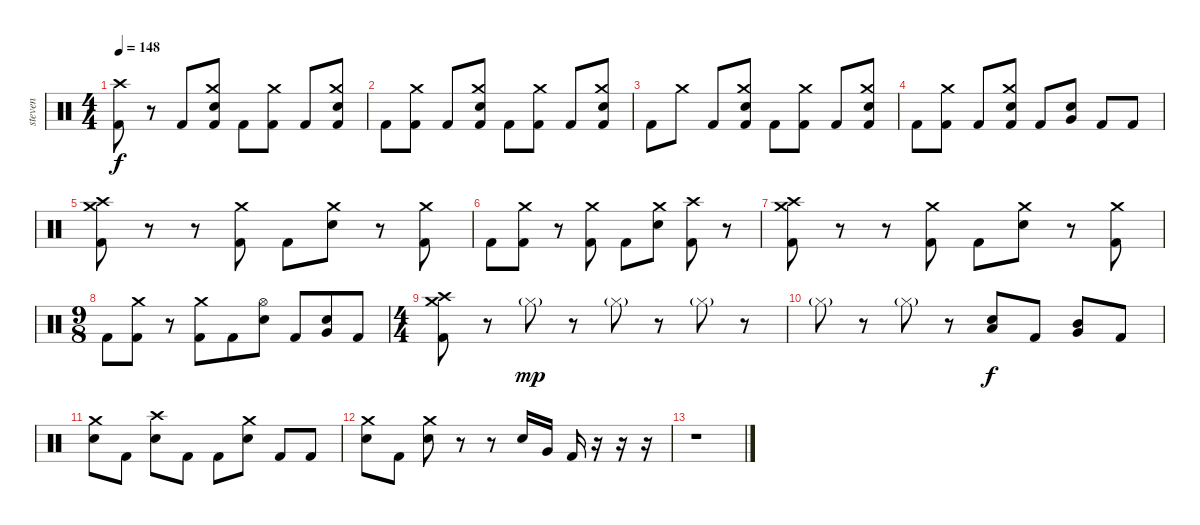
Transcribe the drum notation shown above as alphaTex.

\track ("steven" "steven") {instrument percussion}
\staff {score}
\articulation defaults
\ts (4 4)
\tempo 148
\clef neutral
\ks c
("Crash high (hit)" "Kick (hit) 2").8{dy f} r.8 "Kick (hit) 2".8 ("Crash medium (hit)" "Electric Snare (hit)" "Kick (hit) 2").8 "Kick (hit) 2".8 ("Crash medium (hit)" "Kick (hit) 2").8 "Kick (hit) 2".8 ("Crash medium (hit)" "Electric Snare (hit)" "Kick (hit) 2").8 |
"Kick (hit) 2".8 ("Crash medium (hit)" "Kick (hit) 2").8 "Kick (hit) 2".8 ("Crash medium (hit)" "Electric Snare (hit)" "Kick (hit) 2").8 "Kick (hit) 2".8 ("Crash medium (hit)" "Kick (hit) 2").8 "Kick (hit) 2".8 ("Crash medium (hit)" "Electric Snare (hit)" "Kick (hit) 2").8 |
"Kick (hit) 2".8 "Crash medium (hit)".8 "Kick (hit) 2".8 ("Crash medium (hit)" "Electric Snare (hit)" "Kick (hit) 2").8 "Kick (hit) 2".8 ("Crash medium (hit)" "Kick (hit) 2").8 "Kick (hit) 2".8 ("Crash medium (hit)" "Electric Snare (hit)" "Kick (hit) 2").8 |
"Kick (hit) 2".8 ("Crash medium (hit)" "Kick (hit) 2").8 "Kick (hit) 2".8 ("Crash medium (hit)" "Electric Snare (hit)" "Kick (hit) 2").8 "Kick (hit) 2".8 ("Electric Snare (hit)" "Very Low Tom (hit)").8 "Kick (hit) 2".8 "Kick (hit) 2".8 |
("Crash medium (hit)" "Crash high (hit)" "Kick (hit) 2").8 r.8 r.8 ("Crash medium (hit)" "Kick (hit) 2").8 "Kick (hit) 2".8 ("Crash medium (hit)" "Electric Snare (hit)").8 r.8 ("Crash medium (hit)" "Kick (hit) 2").8 |
"Kick (hit) 2".8 ("Crash medium (hit)" "Kick (hit) 2").8 r.8 ("Crash medium (hit)" "Kick (hit) 2").8 "Kick (hit) 2".8 ("Crash medium (hit)" "Electric Snare (hit)").8 ("Crash high (hit)" "Kick (hit) 2").8 r.8 |
("Crash medium (hit)" "Crash high (hit)" "Kick (hit) 2").8 r.8 r.8 ("Crash medium (hit)" "Kick (hit) 2").8 "Kick (hit) 2".8 ("Crash medium (hit)" "Electric Snare (hit)").8 r.8 ("Crash medium (hit)" "Kick (hit) 2").8 |
\ts (9 8)
"Kick (hit) 2".8 ("Crash medium (hit)" "Kick (hit) 2").8 r.8 ("Crash medium (hit)" "Kick (hit) 2").8 "Kick (hit) 2".8 ("Hi-Hat (open)" "Electric Snare (hit)").8 "Kick (hit) 2".8 ("Electric Snare (hit)" "Very Low Tom (hit)").8 "Kick (hit) 2".8 |
\ts (4 4)
("Crash medium (hit)" "Crash high (hit)" "Kick (hit) 2").8 r.8 "Hi-Hat (closed)"{g}.8{dy mp} r.8 "Hi-Hat (closed)"{g}.8 r.8 "Hi-Hat (closed)"{g}.8 r.8 |
"Hi-Hat (closed)"{g}.8 r.8 "Hi-Hat (closed)"{g}.8 r.8 ("Electric Snare (hit)" "Low Tom (hit)").8{dy f} "Kick (hit) 2".8 ("Mid Tom (hit)" "Very Low Tom (hit)").8 "Kick (hit) 2".8 |
("Crash medium (hit)" "Electric Snare (hit)").8 "Kick (hit) 2".8 ("Crash high (hit)" "Electric Snare (hit)").8 "Kick (hit) 2".8 "Kick (hit) 2".8 ("Crash medium (hit)" "Electric Snare (hit)").8 "Kick (hit) 2".8 "Kick (hit) 2".8 |
("Crash medium (hit)" "Electric Snare (hit)").8 "Kick (hit) 2".8 ("Crash medium (hit)" "Electric Snare (hit)").8 r.8 r.8 "Electric Snare (hit)".16 "Very Low Tom (hit)".16 "Kick (hit) 2".16 r.16 r.16 r.16 |
r.1
